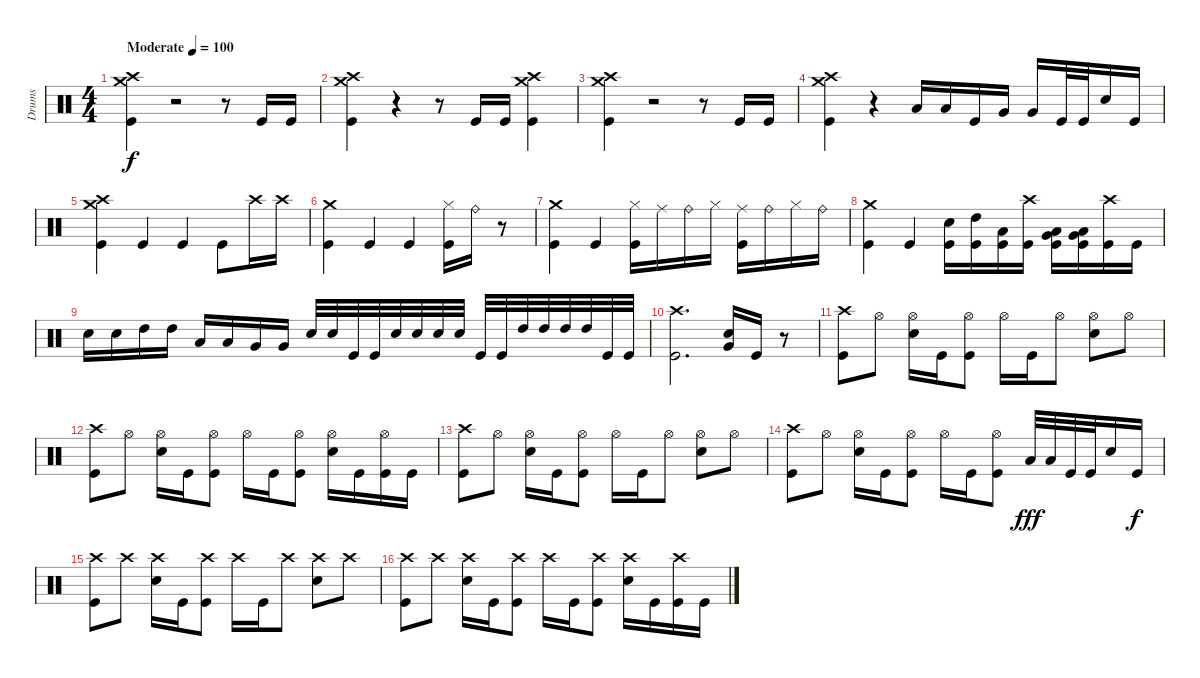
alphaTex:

\track ("Drums" "Drums") {instrument percussion}
\staff {score}
\articulation defaults
\ts (4 4)
\tempo (100 "Moderate")
\clef neutral
\ks c
("Crash high (hit)" "Crash medium (hit)" "Kick (hit)").4{dy f} r.2 r.8 "Kick (hit)".16 "Kick (hit)".16 |
("Crash high (hit)" "Crash medium (hit)" "Kick (hit)").4 r.4 r.8 "Kick (hit)".16 "Kick (hit)".16 ("Crash high (hit)" "Crash medium (hit)" "Kick (hit)").4 |
("Crash high (hit)" "Crash medium (hit)" "Kick (hit)").4 r.2 r.8 "Kick (hit)".16 "Kick (hit)".16 |
("Crash high (hit)" "Crash medium (hit)" "Kick (hit)").4 r.4 "Low Tom (hit)".16 "Low Tom (hit)".16 "Kick (hit)".16 "Very Low Tom (hit)".16 "Very Low Tom (hit)".16 "Kick (hit)".32 "Kick (hit)".32 "Electric Snare (hit)".16 "Kick (hit)".16 |
("Crash high (hit)" "Crash medium (hit)" "Kick (hit)").4 "Kick (hit)".4 "Kick (hit)".4 "Kick (hit)".8 "Crash high (hit)".16 "Crash high (hit)".16 |
("Crash medium (hit)" "Kick (hit)").4 "Kick (hit)".4 "Kick (hit)".4 ("Hi-Hat (closed)" "Kick (hit)").16 "Ride (bell)".16 r.8 |
("Crash medium (hit)" "Kick (hit)").4 "Kick (hit)".4 ("Hi-Hat (closed)" "Kick (hit)").16 "Ride (middle)".16 "Ride (bell)".16 "Hi-Hat (closed)".16 ("Ride (middle)" "Kick (hit)").16 "Ride (bell)".16 "Hi-Hat (closed)".16 "Ride (bell)".16 |
("Crash medium (hit)" "Kick (hit)").4 "Kick (hit)".4 ("Electric Snare (hit)" "Kick (hit)").16 ("High Tom (hit)" "Kick (hit)").16 ("Low Tom (hit)" "Kick (hit)").16 ("Crash high (hit)" "Kick (hit)").16 ("Very Low Tom (hit)" "Low Tom (hit)" "Kick (hit)").16 ("Very Low Tom (hit)" "Low Tom (hit)" "Kick (hit)").16 ("Crash high (hit)" "Kick (hit)").16 "Kick (hit)".16 |
"Electric Snare (hit)".16 "Electric Snare (hit)".16 "High Tom (hit)".16 "High Tom (hit)".16 "Low Tom (hit)".16 "Low Tom (hit)".16 "Very Low Tom (hit)".16 "Very Low Tom (hit)".16 "Electric Snare (hit)".32 "Electric Snare (hit)".32 "Kick (hit)".32 "Kick (hit)".32 "Electric Snare (hit)".32 "Electric Snare (hit)".32 "Electric Snare (hit)".32 "Electric Snare (hit)".32 "Kick (hit)".32 "Kick (hit)".32 "High Tom (hit)".32 "High Tom (hit)".32 "High Tom (hit)".32 "High Tom (hit)".32 "Kick (hit)".32 "Kick (hit)".32 |
("Crash high (hit)" "Kick (hit)").2{d} ("Very Low Tom (hit)" "Electric Snare (hit)").16 "Kick (hit)".16 r.8 |
("Crash high (hit)" "Kick (hit)").8 "Hi-Hat (open)".8 ("Hi-Hat (open)" "Electric Snare (hit)").16 "Kick (hit)".16 ("Hi-Hat (open)" "Kick (hit)").8 "Hi-Hat (open)".16 "Kick (hit)".16 "Hi-Hat (open)".8 ("Hi-Hat (open)" "Electric Snare (hit)").8 "Hi-Hat (open)".8 |
("Crash high (hit)" "Kick (hit)").8 "Hi-Hat (open)".8 ("Hi-Hat (open)" "Electric Snare (hit)").16 "Kick (hit)".16 ("Hi-Hat (open)" "Kick (hit)").8 "Hi-Hat (open)".16 "Kick (hit)".16 ("Hi-Hat (open)" "Kick (hit)").8 ("Hi-Hat (open)" "Electric Snare (hit)").16 "Kick (hit)".16 ("Hi-Hat (open)" "Kick (hit)").16 "Kick (hit)".16 |
("Crash high (hit)" "Kick (hit)").8 "Hi-Hat (open)".8 ("Hi-Hat (open)" "Electric Snare (hit)").16 "Kick (hit)".16 ("Hi-Hat (open)" "Kick (hit)").8 "Hi-Hat (open)".16 "Kick (hit)".16 "Hi-Hat (open)".8 ("Hi-Hat (open)" "Electric Snare (hit)").8 "Hi-Hat (open)".8 |
("Crash high (hit)" "Kick (hit)").8 "Hi-Hat (open)".8 ("Hi-Hat (open)" "Electric Snare (hit)").16 "Kick (hit)".16 ("Hi-Hat (open)" "Kick (hit)").8 "Hi-Hat (open)".16 "Kick (hit)".16 ("Hi-Hat (open)" "Kick (hit)").8 "Low Tom (hit)".32{dy fff} "Low Tom (hit)".32 "Kick (hit)".32 "Kick (hit)".32 "Electric Snare (hit)".16 "Kick (hit)".16{dy f} |
("Crash high (hit)" "Kick (hit)").8 "Crash high (hit)".8 ("Crash high (hit)" "Electric Snare (hit)").16 "Kick (hit)".16 ("Crash high (hit)" "Kick (hit)").8 "Crash high (hit)".16 "Kick (hit)".16 "Crash high (hit)".8 ("Crash high (hit)" "Electric Snare (hit)").8 "Crash high (hit)".8 |
("Crash high (hit)" "Kick (hit)").8 "Crash high (hit)".8 ("Crash high (hit)" "Electric Snare (hit)").16 "Kick (hit)".16 ("Crash high (hit)" "Kick (hit)").8 "Crash high (hit)".16 "Kick (hit)".16 ("Crash high (hit)" "Kick (hit)").8 ("Crash high (hit)" "Electric Snare (hit)").16 "Kick (hit)".16 ("Crash high (hit)" "Kick (hit)").16 "Kick (hit)".16
